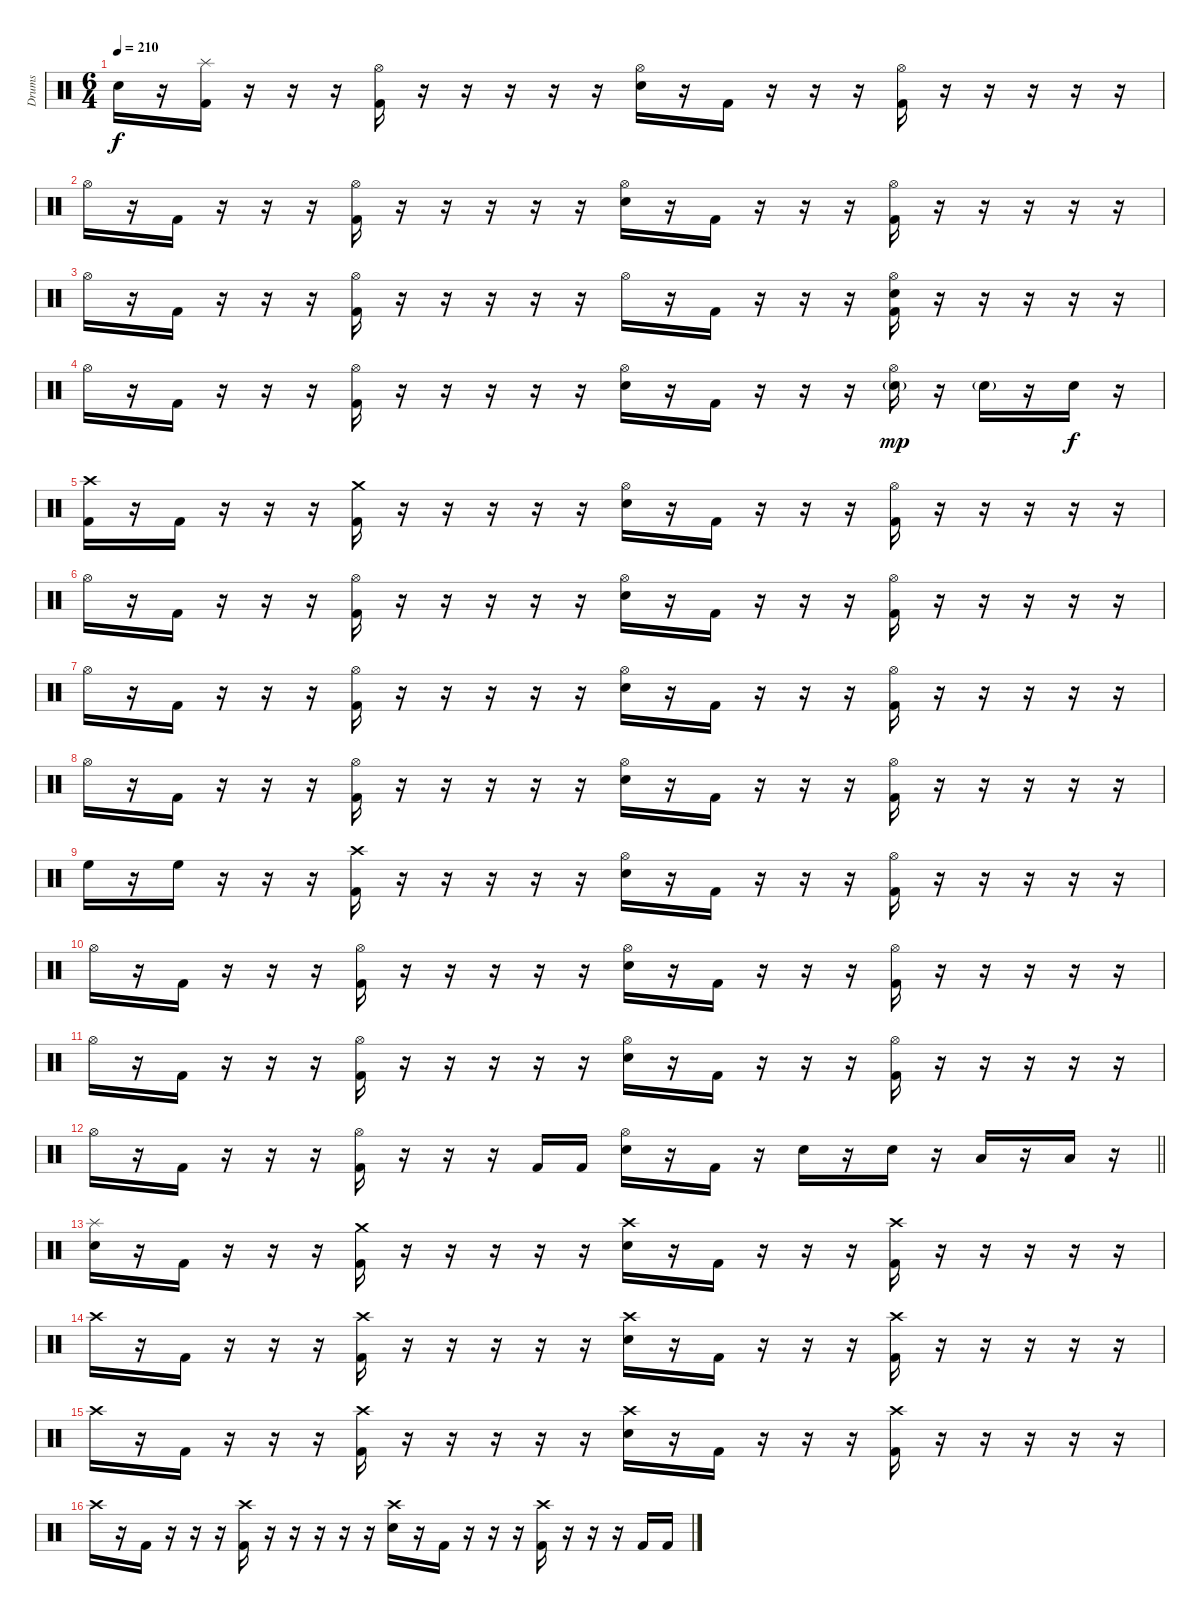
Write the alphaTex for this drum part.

\track ("Drums" "Drums") {instrument percussion}
\staff {score}
\articulation defaults
\ts (6 4)
\tempo 210
\clef neutral
\ks c "Electric Snare (hit)".16{dy f}
r.16 ("Splash (hit)" "Kick (hit) 2").16 r.16 r.16 r.16 ("Hi-Hat (open)" "Kick (hit) 2").16 r.16 r.16 r.16 r.16 r.16 ("Hi-Hat (open)" "Electric Snare (hit)").16 r.16 "Kick (hit) 2".16 r.16 r.16 r.16 ("Hi-Hat (open)" "Kick (hit) 2").16 r.16 r.16 r.16 r.16 r.16 |
"Hi-Hat (open)".16 r.16 "Kick (hit) 2".16 r.16 r.16 r.16 ("Hi-Hat (open)" "Kick (hit) 2").16 r.16 r.16 r.16 r.16 r.16 ("Hi-Hat (open)" "Electric Snare (hit)").16 r.16 "Kick (hit) 2".16 r.16 r.16 r.16 ("Hi-Hat (open)" "Kick (hit) 2").16 r.16 r.16 r.16 r.16 r.16 |
"Hi-Hat (open)".16 r.16 "Kick (hit) 2".16 r.16 r.16 r.16 ("Hi-Hat (open)" "Kick (hit) 2").16 r.16 r.16 r.16 r.16 r.16 "Hi-Hat (open)".16 r.16 "Kick (hit) 2".16 r.16 r.16 r.16 ("Hi-Hat (open)" "Electric Snare (hit)" "Kick (hit) 2").16 r.16 r.16 r.16 r.16 r.16 |
"Hi-Hat (open)".16 r.16 "Kick (hit) 2".16 r.16 r.16 r.16 ("Hi-Hat (open)" "Kick (hit) 2").16 r.16 r.16 r.16 r.16 r.16 ("Hi-Hat (open)" "Electric Snare (hit)").16 r.16 "Kick (hit) 2".16 r.16 r.16 r.16 ("Hi-Hat (open)" "Electric Snare (hit)"{g}).16{dy mp} r.16 "Electric Snare (hit)"{g}.16 r.16 "Electric Snare (hit)".16{dy f} r.16 |
("Crash high (hit)" "Kick (hit) 2").16 r.16 "Kick (hit) 2".16 r.16 r.16 r.16 ("Crash medium (hit)" "Kick (hit) 2").16 r.16 r.16 r.16 r.16 r.16 ("Hi-Hat (open)" "Electric Snare (hit)").16 r.16 "Kick (hit) 2".16 r.16 r.16 r.16 ("Hi-Hat (open)" "Kick (hit) 2").16 r.16 r.16 r.16 r.16 r.16 |
"Hi-Hat (open)".16 r.16 "Kick (hit) 2".16 r.16 r.16 r.16 ("Hi-Hat (open)" "Kick (hit) 2").16 r.16 r.16 r.16 r.16 r.16 ("Hi-Hat (open)" "Electric Snare (hit)").16 r.16 "Kick (hit) 2".16 r.16 r.16 r.16 ("Hi-Hat (open)" "Kick (hit) 2").16 r.16 r.16 r.16 r.16 r.16 |
"Hi-Hat (open)".16 r.16 "Kick (hit) 2".16 r.16 r.16 r.16 ("Hi-Hat (open)" "Kick (hit) 2").16 r.16 r.16 r.16 r.16 r.16 ("Hi-Hat (open)" "Electric Snare (hit)").16 r.16 "Kick (hit) 2".16 r.16 r.16 r.16 ("Hi-Hat (open)" "Kick (hit) 2").16 r.16 r.16 r.16 r.16 r.16 |
"Hi-Hat (open)".16 r.16 "Kick (hit) 2".16 r.16 r.16 r.16 ("Hi-Hat (open)" "Kick (hit) 2").16 r.16 r.16 r.16 r.16 r.16 ("Hi-Hat (open)" "Electric Snare (hit)").16 r.16 "Kick (hit) 2".16 r.16 r.16 r.16 ("Hi-Hat (open)" "Kick (hit) 2").16 r.16 r.16 r.16 r.16 r.16 |
"High Floor Tom (hit)".16 r.16 "High Floor Tom (hit)".16 r.16 r.16 r.16 ("Crash high (hit)" "Kick (hit) 2").16 r.16 r.16 r.16 r.16 r.16 ("Hi-Hat (open)" "Electric Snare (hit)").16 r.16 "Kick (hit) 2".16 r.16 r.16 r.16 ("Hi-Hat (open)" "Kick (hit) 2").16 r.16 r.16 r.16 r.16 r.16 |
"Hi-Hat (open)".16 r.16 "Kick (hit) 2".16 r.16 r.16 r.16 ("Hi-Hat (open)" "Kick (hit) 2").16 r.16 r.16 r.16 r.16 r.16 ("Hi-Hat (open)" "Electric Snare (hit)").16 r.16 "Kick (hit) 2".16 r.16 r.16 r.16 ("Hi-Hat (open)" "Kick (hit) 2").16 r.16 r.16 r.16 r.16 r.16 |
"Hi-Hat (open)".16 r.16 "Kick (hit) 2".16 r.16 r.16 r.16 ("Hi-Hat (open)" "Kick (hit) 2").16 r.16 r.16 r.16 r.16 r.16 ("Hi-Hat (open)" "Electric Snare (hit)").16 r.16 "Kick (hit) 2".16 r.16 r.16 r.16 ("Hi-Hat (open)" "Kick (hit) 2").16 r.16 r.16 r.16 r.16 r.16 |
\barLineRight lightlight "Hi-Hat (open)".16
r.16 "Kick (hit) 2".16 r.16 r.16 r.16 ("Hi-Hat (open)" "Kick (hit) 2").16 r.16 r.16 r.16 "Kick (hit) 2".16 "Kick (hit) 2".16 ("Hi-Hat (open)" "Electric Snare (hit)").16 r.16 "Kick (hit) 2".16 r.16 "Electric Snare (hit)".16 r.16 "Electric Snare (hit)".16 r.16 "Low Tom (hit)".16 r.16 "Low Floor Tom (hit)".16 r.16 |
\section ("" "")
("Splash (hit)" "Electric Snare (hit)").16 r.16 "Kick (hit) 2".16 r.16 r.16 r.16 ("Crash medium (hit)" "Kick (hit) 2").16 r.16 r.16 r.16 r.16 r.16 ("Crash high (hit)" "Electric Snare (hit)").16 r.16 "Kick (hit) 2".16 r.16 r.16 r.16 ("Crash high (hit)" "Kick (hit) 2").16 r.16 r.16 r.16 r.16 r.16 |
"Crash high (hit)".16 r.16 "Kick (hit) 2".16 r.16 r.16 r.16 ("Crash high (hit)" "Kick (hit) 2").16 r.16 r.16 r.16 r.16 r.16 ("Crash high (hit)" "Electric Snare (hit)").16 r.16 "Kick (hit) 2".16 r.16 r.16 r.16 ("Crash high (hit)" "Kick (hit) 2").16 r.16 r.16 r.16 r.16 r.16 |
"Crash high (hit)".16 r.16 "Kick (hit) 2".16 r.16 r.16 r.16 ("Crash high (hit)" "Kick (hit) 2").16 r.16 r.16 r.16 r.16 r.16 ("Crash high (hit)" "Electric Snare (hit)").16 r.16 "Kick (hit) 2".16 r.16 r.16 r.16 ("Crash high (hit)" "Kick (hit) 2").16 r.16 r.16 r.16 r.16 r.16 |
"Crash high (hit)".16 r.16 "Kick (hit) 2".16 r.16 r.16 r.16 ("Crash high (hit)" "Kick (hit) 2").16 r.16 r.16 r.16 r.16 r.16 ("Crash high (hit)" "Electric Snare (hit)").16 r.16 "Kick (hit) 2".16 r.16 r.16 r.16 ("Crash high (hit)" "Kick (hit) 2").16 r.16 r.16 r.16 "Kick (hit) 2".16 "Kick (hit) 2".16
